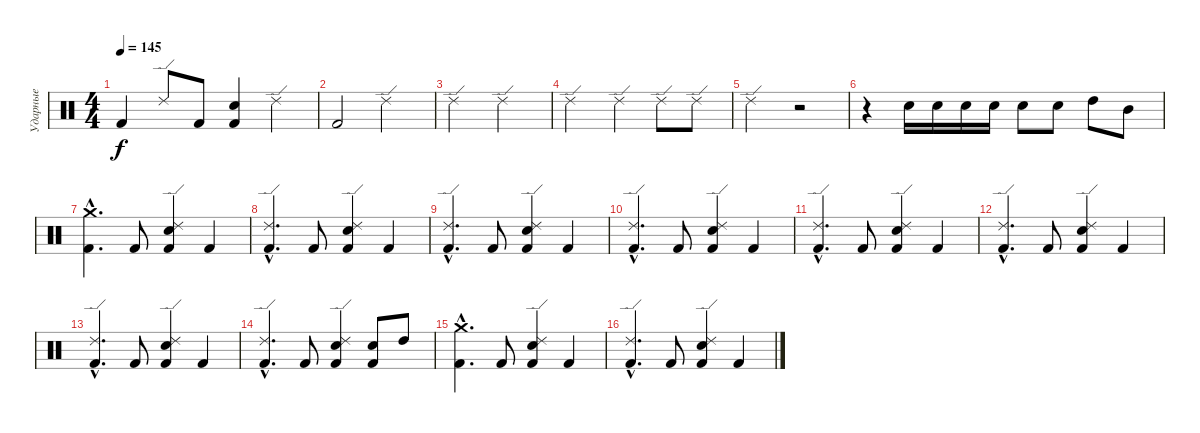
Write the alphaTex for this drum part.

\track ("Ударные" "Ударные") {instrument percussion}
\staff {score}
\articulation defaults
\ts (4 4)
\tempo 145
\clef neutral
\ks c "Kick (hit) 2".4{dy f} "Ride (edge) 2".8 "Kick (hit) 2".8
("Electric Snare (hit)" "Kick (hit) 2").4 "Ride (edge) 2".4 |
"Kick (hit) 2".2 "Ride (edge) 2".2 |
"Ride (edge) 2".2 "Ride (edge) 2".2 |
"Ride (edge) 2".2 "Ride (edge) 2".4 "Ride (edge) 2".8 "Ride (edge) 2".8 |
"Ride (edge) 2".2 r.2 |
r.4 "Electric Snare (hit)".16 "Electric Snare (hit)".16 "Electric Snare (hit)".16 "Electric Snare (hit)".16 "Electric Snare (hit)".8 "Electric Snare (hit)".8 "High Tom (hit)".8 "Mid Tom (hit)".8 |
("Crash medium (hit)"{hac} "Kick (hit) 2"{hac}).4{d} "Kick (hit) 2".8 ("Ride (edge) 2" "Electric Snare (hit)" "Kick (hit) 2").4 "Kick (hit) 2".4 |
("Ride (edge) 2"{hac} "Kick (hit) 2"{hac}).4{d} "Kick (hit) 2".8 ("Ride (edge) 2" "Electric Snare (hit)" "Kick (hit) 2").4 "Kick (hit) 2".4 |
("Ride (edge) 2"{hac} "Kick (hit) 2"{hac}).4{d} "Kick (hit) 2".8 ("Ride (edge) 2" "Electric Snare (hit)" "Kick (hit) 2").4 "Kick (hit) 2".4 |
("Ride (edge) 2"{hac} "Kick (hit) 2"{hac}).4{d} "Kick (hit) 2".8 ("Ride (edge) 2" "Electric Snare (hit)" "Kick (hit) 2").4 "Kick (hit) 2".4 |
("Ride (edge) 2"{hac} "Kick (hit) 2"{hac}).4{d} "Kick (hit) 2".8 ("Ride (edge) 2" "Electric Snare (hit)" "Kick (hit) 2").4 "Kick (hit) 2".4 |
("Ride (edge) 2"{hac} "Kick (hit) 2"{hac}).4{d} "Kick (hit) 2".8 ("Ride (edge) 2" "Electric Snare (hit)" "Kick (hit) 2").4 "Kick (hit) 2".4 |
("Ride (edge) 2"{hac} "Kick (hit) 2"{hac}).4{d} "Kick (hit) 2".8 ("Ride (edge) 2" "Electric Snare (hit)" "Kick (hit) 2").4 "Kick (hit) 2".4 |
("Ride (edge) 2"{hac} "Kick (hit) 2"{hac}).4{d} "Kick (hit) 2".8 ("Ride (edge) 2" "Electric Snare (hit)" "Kick (hit) 2").4 ("Electric Snare (hit)" "Kick (hit) 2").8 "High Tom (hit)".8 |
("Crash medium (hit)"{hac} "Kick (hit) 2"{hac}).4{d} "Kick (hit) 2".8 ("Ride (edge) 2" "Electric Snare (hit)" "Kick (hit) 2").4 "Kick (hit) 2".4 |
("Ride (edge) 2"{hac} "Kick (hit) 2"{hac}).4{d} "Kick (hit) 2".8 ("Ride (edge) 2" "Electric Snare (hit)" "Kick (hit) 2").4 "Kick (hit) 2".4
